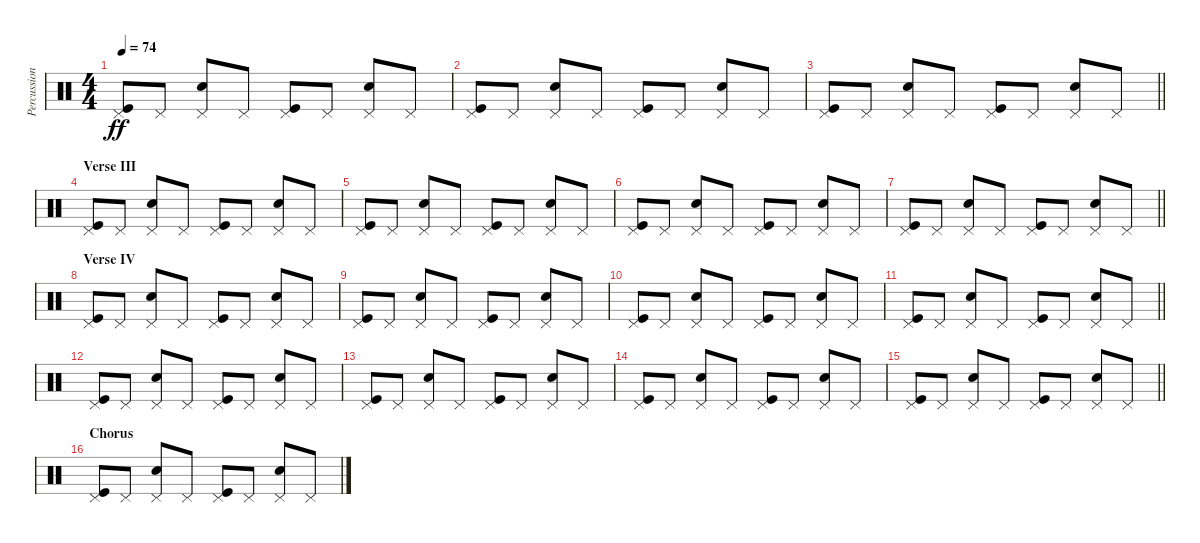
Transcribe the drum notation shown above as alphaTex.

\track ("Percussion" "Percussion") {instrument percussion}
\staff {score}
\articulation defaults
\ts (4 4)
\tempo 74
\clef neutral
\ks c
("Pedal Hi-Hat (hit)" "Kick (hit)").8{dy ff} "Pedal Hi-Hat (hit)".8 ("Pedal Hi-Hat (hit)" "Snare (hit) 2").8 "Pedal Hi-Hat (hit)".8 ("Pedal Hi-Hat (hit)" "Kick (hit)").8 "Pedal Hi-Hat (hit)".8 ("Pedal Hi-Hat (hit)" "Snare (hit) 2").8 "Pedal Hi-Hat (hit)".8 |
("Pedal Hi-Hat (hit)" "Kick (hit)").8 "Pedal Hi-Hat (hit)".8 ("Pedal Hi-Hat (hit)" "Snare (hit) 2").8 "Pedal Hi-Hat (hit)".8 ("Pedal Hi-Hat (hit)" "Kick (hit)").8 "Pedal Hi-Hat (hit)".8 ("Pedal Hi-Hat (hit)" "Snare (hit) 2").8 "Pedal Hi-Hat (hit)".8 |
\barLineRight lightlight
("Pedal Hi-Hat (hit)" "Kick (hit)").8 "Pedal Hi-Hat (hit)".8 ("Pedal Hi-Hat (hit)" "Snare (hit) 2").8 "Pedal Hi-Hat (hit)".8 ("Pedal Hi-Hat (hit)" "Kick (hit)").8 "Pedal Hi-Hat (hit)".8 ("Pedal Hi-Hat (hit)" "Snare (hit) 2").8 "Pedal Hi-Hat (hit)".8 |
\section ("" "Verse III")
("Pedal Hi-Hat (hit)" "Kick (hit)").8 "Pedal Hi-Hat (hit)".8 ("Pedal Hi-Hat (hit)" "Snare (hit) 2").8 "Pedal Hi-Hat (hit)".8 ("Pedal Hi-Hat (hit)" "Kick (hit)").8 "Pedal Hi-Hat (hit)".8 ("Pedal Hi-Hat (hit)" "Snare (hit) 2").8 "Pedal Hi-Hat (hit)".8 |
("Pedal Hi-Hat (hit)" "Kick (hit)").8 "Pedal Hi-Hat (hit)".8 ("Pedal Hi-Hat (hit)" "Snare (hit) 2").8 "Pedal Hi-Hat (hit)".8 ("Pedal Hi-Hat (hit)" "Kick (hit)").8 "Pedal Hi-Hat (hit)".8 ("Pedal Hi-Hat (hit)" "Snare (hit) 2").8 "Pedal Hi-Hat (hit)".8 |
("Pedal Hi-Hat (hit)" "Kick (hit)").8 "Pedal Hi-Hat (hit)".8 ("Pedal Hi-Hat (hit)" "Snare (hit) 2").8 "Pedal Hi-Hat (hit)".8 ("Pedal Hi-Hat (hit)" "Kick (hit)").8 "Pedal Hi-Hat (hit)".8 ("Pedal Hi-Hat (hit)" "Snare (hit) 2").8 "Pedal Hi-Hat (hit)".8 |
\barLineRight lightlight
("Pedal Hi-Hat (hit)" "Kick (hit)").8 "Pedal Hi-Hat (hit)".8 ("Pedal Hi-Hat (hit)" "Snare (hit) 2").8 "Pedal Hi-Hat (hit)".8 ("Pedal Hi-Hat (hit)" "Kick (hit)").8 "Pedal Hi-Hat (hit)".8 ("Pedal Hi-Hat (hit)" "Snare (hit) 2").8 "Pedal Hi-Hat (hit)".8 |
\section ("" "Verse IV")
("Pedal Hi-Hat (hit)" "Kick (hit)").8 "Pedal Hi-Hat (hit)".8 ("Pedal Hi-Hat (hit)" "Snare (hit) 2").8 "Pedal Hi-Hat (hit)".8 ("Pedal Hi-Hat (hit)" "Kick (hit)").8 "Pedal Hi-Hat (hit)".8 ("Pedal Hi-Hat (hit)" "Snare (hit) 2").8 "Pedal Hi-Hat (hit)".8 |
("Pedal Hi-Hat (hit)" "Kick (hit)").8 "Pedal Hi-Hat (hit)".8 ("Pedal Hi-Hat (hit)" "Snare (hit) 2").8 "Pedal Hi-Hat (hit)".8 ("Pedal Hi-Hat (hit)" "Kick (hit)").8 "Pedal Hi-Hat (hit)".8 ("Pedal Hi-Hat (hit)" "Snare (hit) 2").8 "Pedal Hi-Hat (hit)".8 |
("Pedal Hi-Hat (hit)" "Kick (hit)").8 "Pedal Hi-Hat (hit)".8 ("Pedal Hi-Hat (hit)" "Snare (hit) 2").8 "Pedal Hi-Hat (hit)".8 ("Pedal Hi-Hat (hit)" "Kick (hit)").8 "Pedal Hi-Hat (hit)".8 ("Pedal Hi-Hat (hit)" "Snare (hit) 2").8 "Pedal Hi-Hat (hit)".8 |
\barLineRight lightlight
("Pedal Hi-Hat (hit)" "Kick (hit)").8 "Pedal Hi-Hat (hit)".8 ("Pedal Hi-Hat (hit)" "Snare (hit) 2").8 "Pedal Hi-Hat (hit)".8 ("Pedal Hi-Hat (hit)" "Kick (hit)").8 "Pedal Hi-Hat (hit)".8 ("Pedal Hi-Hat (hit)" "Snare (hit) 2").8 "Pedal Hi-Hat (hit)".8 |
("Pedal Hi-Hat (hit)" "Kick (hit)").8 "Pedal Hi-Hat (hit)".8 ("Pedal Hi-Hat (hit)" "Snare (hit) 2").8 "Pedal Hi-Hat (hit)".8 ("Pedal Hi-Hat (hit)" "Kick (hit)").8 "Pedal Hi-Hat (hit)".8 ("Pedal Hi-Hat (hit)" "Snare (hit) 2").8 "Pedal Hi-Hat (hit)".8 |
("Pedal Hi-Hat (hit)" "Kick (hit)").8 "Pedal Hi-Hat (hit)".8 ("Pedal Hi-Hat (hit)" "Snare (hit) 2").8 "Pedal Hi-Hat (hit)".8 ("Pedal Hi-Hat (hit)" "Kick (hit)").8 "Pedal Hi-Hat (hit)".8 ("Pedal Hi-Hat (hit)" "Snare (hit) 2").8 "Pedal Hi-Hat (hit)".8 |
("Pedal Hi-Hat (hit)" "Kick (hit)").8 "Pedal Hi-Hat (hit)".8 ("Pedal Hi-Hat (hit)" "Snare (hit) 2").8 "Pedal Hi-Hat (hit)".8 ("Pedal Hi-Hat (hit)" "Kick (hit)").8 "Pedal Hi-Hat (hit)".8 ("Pedal Hi-Hat (hit)" "Snare (hit) 2").8 "Pedal Hi-Hat (hit)".8 |
\barLineRight lightlight
("Pedal Hi-Hat (hit)" "Kick (hit)").8 "Pedal Hi-Hat (hit)".8 ("Pedal Hi-Hat (hit)" "Snare (hit) 2").8 "Pedal Hi-Hat (hit)".8 ("Pedal Hi-Hat (hit)" "Kick (hit)").8 "Pedal Hi-Hat (hit)".8 ("Pedal Hi-Hat (hit)" "Snare (hit) 2").8 "Pedal Hi-Hat (hit)".8 |
\section ("" "Chorus")
("Pedal Hi-Hat (hit)" "Kick (hit)").8 "Pedal Hi-Hat (hit)".8 ("Pedal Hi-Hat (hit)" "Snare (hit) 2").8 "Pedal Hi-Hat (hit)".8 ("Pedal Hi-Hat (hit)" "Kick (hit)").8 "Pedal Hi-Hat (hit)".8 ("Pedal Hi-Hat (hit)" "Snare (hit) 2").8 "Pedal Hi-Hat (hit)".8
